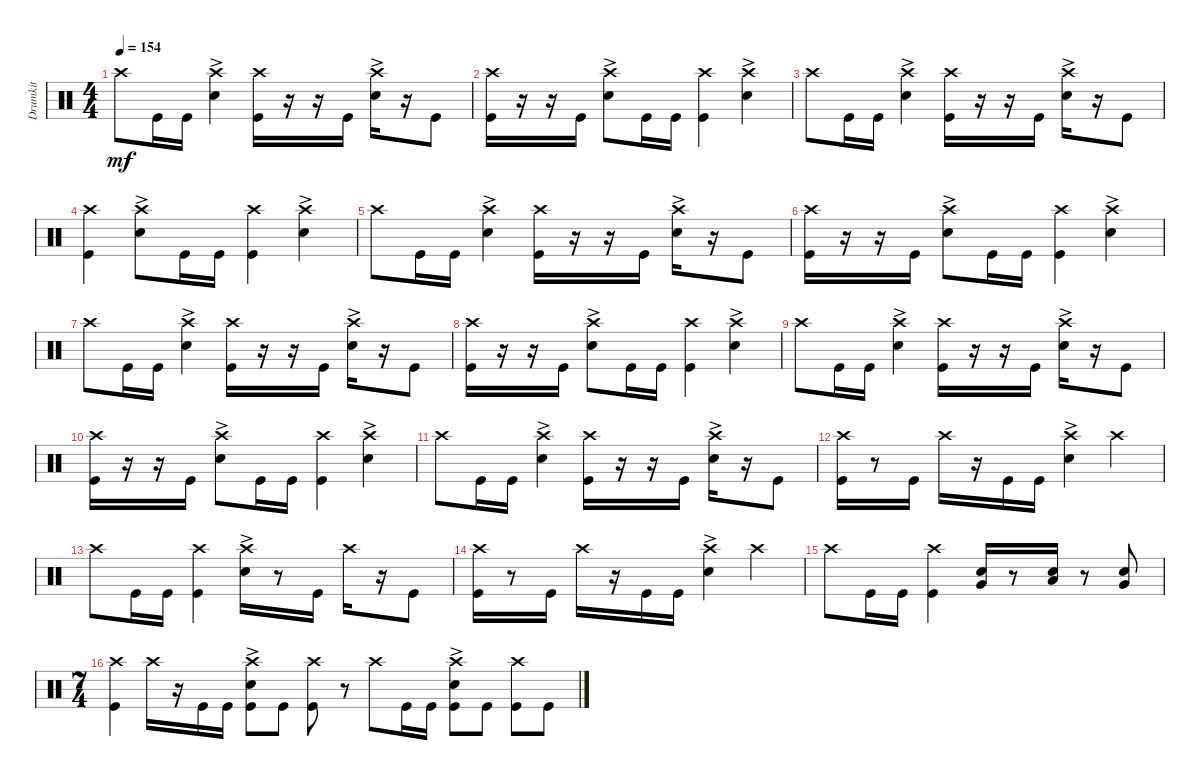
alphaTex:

\track ("Drumkit" "Drumkit") {instrument percussion}
\staff {score}
\articulation defaults
\ts (4 4)
\tempo 154
\clef neutral
\ks c "Crash high (hit)".8{dy mf} "Kick (hit)".16 "Kick (hit)".16
("Snare (hit) 2"{ac} "Crash high (hit)").4 ("Kick (hit)" "Crash high (hit)").16 r.16 r.16 "Kick (hit)".16 ("Snare (hit) 2"{ac} "Crash high (hit)").16 r.16 "Kick (hit)".8 |
("Kick (hit)" "Crash high (hit)").16 r.16 r.16 "Kick (hit)".16 ("Snare (hit) 2"{ac} "Crash high (hit)").8 "Kick (hit)".16 "Kick (hit)".16 ("Kick (hit)" "Crash high (hit)").4 ("Snare (hit) 2"{ac} "Crash high (hit)").4 |
"Crash high (hit)".8 "Kick (hit)".16 "Kick (hit)".16 ("Snare (hit) 2"{ac} "Crash high (hit)").4 ("Kick (hit)" "Crash high (hit)").16 r.16 r.16 "Kick (hit)".16 ("Snare (hit) 2"{ac} "Crash high (hit)").16 r.16 "Kick (hit)".8 |
("Crash high (hit)" "Kick (hit)").4 ("Snare (hit) 2"{ac} "Crash high (hit)").8 "Kick (hit)".16 "Kick (hit)".16 ("Kick (hit)" "Crash high (hit)").4 ("Snare (hit) 2"{ac} "Crash high (hit)").4 |
"Crash high (hit)".8 "Kick (hit)".16 "Kick (hit)".16 ("Snare (hit) 2"{ac} "Crash high (hit)").4 ("Kick (hit)" "Crash high (hit)").16 r.16 r.16 "Kick (hit)".16 ("Snare (hit) 2"{ac} "Crash high (hit)").16 r.16 "Kick (hit)".8 |
("Kick (hit)" "Crash high (hit)").16 r.16 r.16 "Kick (hit)".16 ("Snare (hit) 2"{ac} "Crash high (hit)").8 "Kick (hit)".16 "Kick (hit)".16 ("Kick (hit)" "Crash high (hit)").4 ("Snare (hit) 2"{ac} "Crash high (hit)").4 |
"Crash high (hit)".8 "Kick (hit)".16 "Kick (hit)".16 ("Snare (hit) 2"{ac} "Crash high (hit)").4 ("Kick (hit)" "Crash high (hit)").16 r.16 r.16 "Kick (hit)".16 ("Snare (hit) 2"{ac} "Crash high (hit)").16 r.16 "Kick (hit)".8 |
("Kick (hit)" "Crash high (hit)").16 r.16 r.16 "Kick (hit)".16 ("Snare (hit) 2"{ac} "Crash high (hit)").8 "Kick (hit)".16 "Kick (hit)".16 ("Kick (hit)" "Crash high (hit)").4 ("Snare (hit) 2"{ac} "Crash high (hit)").4 |
"Crash high (hit)".8 "Kick (hit)".16 "Kick (hit)".16 ("Snare (hit) 2"{ac} "Crash high (hit)").4 ("Kick (hit)" "Crash high (hit)").16 r.16 r.16 "Kick (hit)".16 ("Snare (hit) 2"{ac} "Crash high (hit)").16 r.16 "Kick (hit)".8 |
("Kick (hit)" "Crash high (hit)").16 r.16 r.16 "Kick (hit)".16 ("Snare (hit) 2"{ac} "Crash high (hit)").8 "Kick (hit)".16 "Kick (hit)".16 ("Kick (hit)" "Crash high (hit)").4 ("Snare (hit) 2"{ac} "Crash high (hit)").4 |
"Crash high (hit)".8 "Kick (hit)".16 "Kick (hit)".16 ("Snare (hit) 2"{ac} "Crash high (hit)").4 ("Kick (hit)" "Crash high (hit)").16 r.16 r.16 "Kick (hit)".16 ("Snare (hit) 2"{ac} "Crash high (hit)").16 r.16 "Kick (hit)".8 |
("Crash high (hit)" "Kick (hit)").16 r.8 "Kick (hit)".16 "Crash high (hit)".16 r.16 "Kick (hit)".16 "Kick (hit)".16 ("Crash high (hit)" "Snare (hit) 2"{ac}).4 "Crash high (hit)".4 |
"Crash high (hit)".8 "Kick (hit)".16 "Kick (hit)".16 ("Crash high (hit)" "Kick (hit)").4 ("Crash high (hit)" "Snare (hit) 2"{ac}).16 r.8 "Kick (hit)".16 "Crash high (hit)".16 r.16 "Kick (hit)".8 |
("Crash high (hit)" "Kick (hit)").16 r.8 "Kick (hit)".16 "Crash high (hit)".16 r.16 "Kick (hit)".16 "Kick (hit)".16 ("Crash high (hit)" "Snare (hit) 2"{ac}).4 "Crash high (hit)".4 |
"Crash high (hit)".8 "Kick (hit)".16 "Kick (hit)".16 ("Crash high (hit)" "Kick (hit)").4 ("Very Low Tom (hit)" "Snare (hit) 2").16 r.8 ("Snare (hit) 2" "Low Floor Tom (hit)").16 r.8 ("Very Low Tom (hit)" "Snare (hit) 2").8 |
\ts (7 4)
("Kick (hit)" "Crash high (hit)").4 "Crash high (hit)".16 r.16 "Kick (hit)".16 "Kick (hit)".16 ("Kick (hit)" "Crash high (hit)" "Snare (hit) 2"{ac}).8 "Kick (hit)".8 ("Kick (hit)" "Crash high (hit)").8 r.8 "Crash high (hit)".8 "Kick (hit)".16 "Kick (hit)".16 ("Kick (hit)" "Crash high (hit)" "Snare (hit) 2"{ac}).8 "Kick (hit)".8 ("Kick (hit)" "Crash high (hit)").8 "Kick (hit)".8
